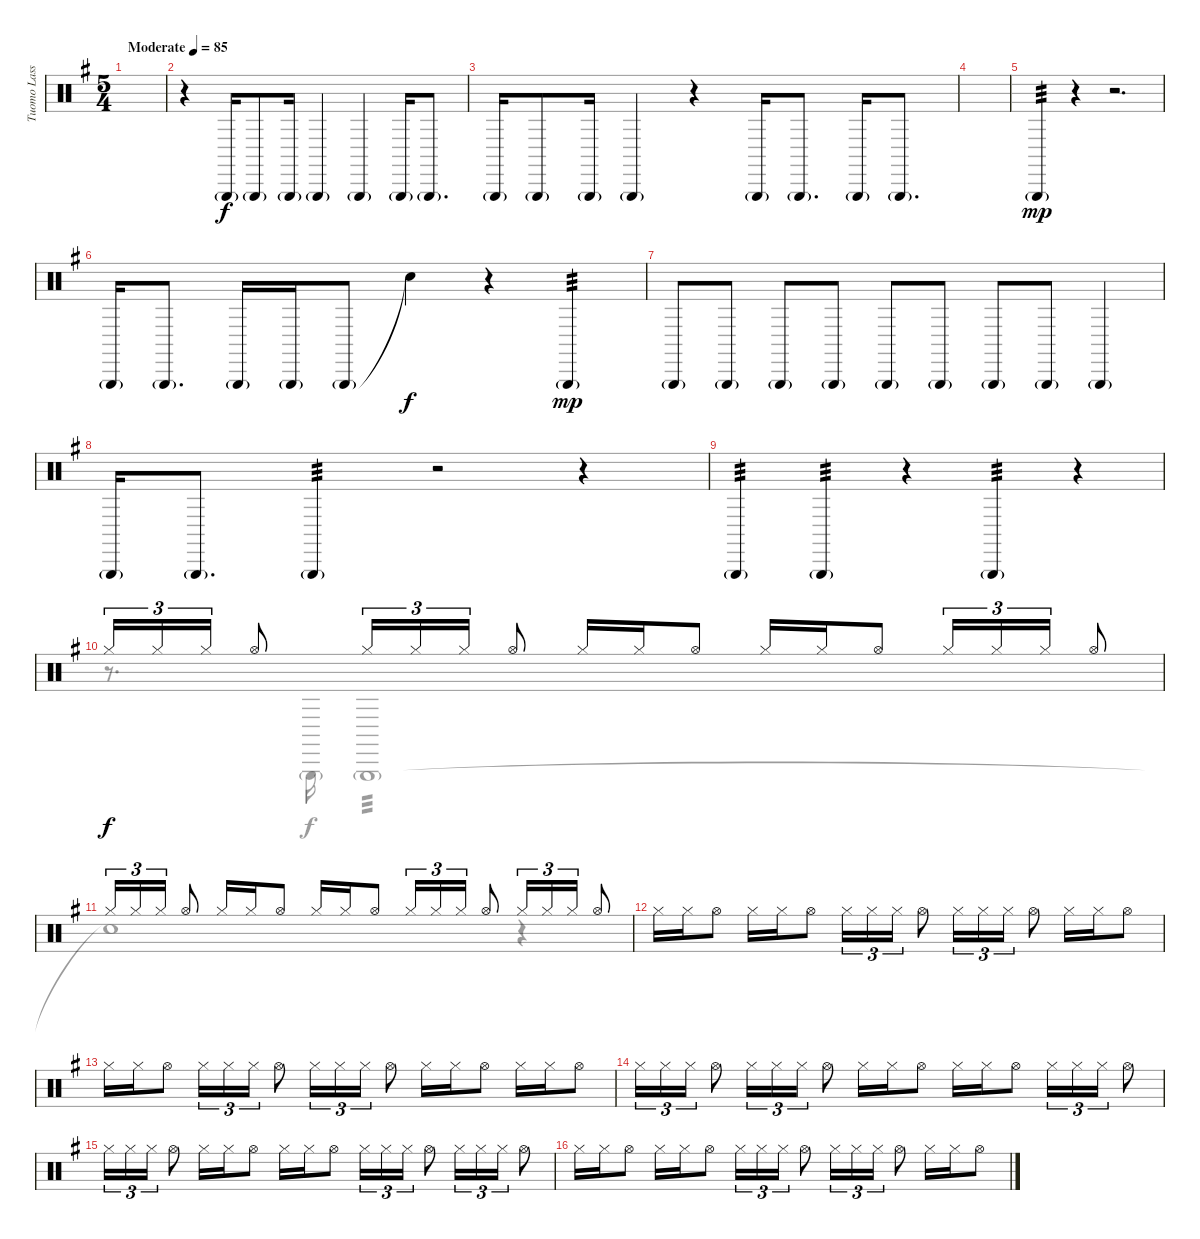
\track ("Tuomo Lassila" "Tuomo Lass") {instrument percussion}
\staff {score}
\articulation defaults
\voice
\ts (5 4)
\tempo (85 "Moderate")
\clef neutral
\ks g
|
r.4 "Triangle (hit)"{g}.16 "Triangle (hit)"{g}.8 "Triangle (hit)"{g}.16 "Triangle (hit)"{g}.4 "Triangle (hit)"{g}.4 "Triangle (hit)"{g}.16 "Triangle (hit)"{g}.8{d} |
"Triangle (hit)"{g}.16 "Triangle (hit)"{g}.8 "Triangle (hit)"{g}.16 "Triangle (hit)"{g}.4 r.4 "Triangle (hit)"{g}.16 "Triangle (hit)"{g}.8{d} "Triangle (hit)"{g}.16 "Triangle (hit)"{g}.8{d} |
|
"Triangle (hit)"{g}.4{tp 3 dy mp} r.4 r.2{d} |
"Triangle (hit)"{g}.16 "Triangle (hit)"{g}.8{d} "Triangle (hit)"{g}.16 "Triangle (hit)"{g}.16 "Triangle (hit)"{g}.8 "Snare (hit)"{t}.4{dy f} r.4 "Triangle (hit)"{g}.4{tp 3 dy mp} |
"Triangle (hit)"{g}.8 "Triangle (hit)"{g}.8 "Triangle (hit)"{g}.8 "Triangle (hit)"{g}.8 "Triangle (hit)"{g}.8 "Triangle (hit)"{g}.8 "Triangle (hit)"{g}.8 "Triangle (hit)"{g}.8 "Triangle (hit)"{g}.4 |
"Triangle (hit)"{g}.16 "Triangle (hit)"{g}.8{d} "Triangle (hit)"{g}.4{tp 3} r.2 r.4 |
"Triangle (hit)"{g}.4{tp 3} "Triangle (hit)"{g}.4{tp 3} r.4 "Triangle (hit)"{g}.4{tp 3} r.4 |
"Hi-Hat (closed)".16{tu (3 2) dy f} "Hi-Hat (closed)".16{tu (3 2)} "Hi-Hat (closed)".16{tu (3 2)} "Hi-Hat (open)".8 "Hi-Hat (closed)".16{tu (3 2)} "Hi-Hat (closed)".16{tu (3 2)} "Hi-Hat (closed)".16{tu (3 2)} "Hi-Hat (open)".8 "Hi-Hat (closed)".16 "Hi-Hat (closed)".16 "Hi-Hat (open)".8 "Hi-Hat (closed)".16 "Hi-Hat (closed)".16 "Hi-Hat (open)".8 "Hi-Hat (closed)".16{tu (3 2)} "Hi-Hat (closed)".16{tu (3 2)} "Hi-Hat (closed)".16{tu (3 2)} "Hi-Hat (open)".8 |
"Hi-Hat (closed)".16{tu (3 2)} "Hi-Hat (closed)".16{tu (3 2)} "Hi-Hat (closed)".16{tu (3 2)} "Hi-Hat (open)".8 "Hi-Hat (closed)".16 "Hi-Hat (closed)".16 "Hi-Hat (open)".8 "Hi-Hat (closed)".16 "Hi-Hat (closed)".16 "Hi-Hat (open)".8 "Hi-Hat (closed)".16{tu (3 2)} "Hi-Hat (closed)".16{tu (3 2)} "Hi-Hat (closed)".16{tu (3 2)} "Hi-Hat (open)".8 "Hi-Hat (closed)".16{tu (3 2)} "Hi-Hat (closed)".16{tu (3 2)} "Hi-Hat (closed)".16{tu (3 2)} "Hi-Hat (open)".8 |
"Hi-Hat (closed)".16 "Hi-Hat (closed)".16 "Hi-Hat (open)".8 "Hi-Hat (closed)".16 "Hi-Hat (closed)".16 "Hi-Hat (open)".8 "Hi-Hat (closed)".16{tu (3 2)} "Hi-Hat (closed)".16{tu (3 2)} "Hi-Hat (closed)".16{tu (3 2)} "Hi-Hat (open)".8 "Hi-Hat (closed)".16{tu (3 2)} "Hi-Hat (closed)".16{tu (3 2)} "Hi-Hat (closed)".16{tu (3 2)} "Hi-Hat (open)".8 "Hi-Hat (closed)".16 "Hi-Hat (closed)".16 "Hi-Hat (open)".8 |
"Hi-Hat (closed)".16 "Hi-Hat (closed)".16 "Hi-Hat (open)".8 "Hi-Hat (closed)".16{tu (3 2)} "Hi-Hat (closed)".16{tu (3 2)} "Hi-Hat (closed)".16{tu (3 2)} "Hi-Hat (open)".8 "Hi-Hat (closed)".16{tu (3 2)} "Hi-Hat (closed)".16{tu (3 2)} "Hi-Hat (closed)".16{tu (3 2)} "Hi-Hat (open)".8 "Hi-Hat (closed)".16 "Hi-Hat (closed)".16 "Hi-Hat (open)".8 "Hi-Hat (closed)".16 "Hi-Hat (closed)".16 "Hi-Hat (open)".8 |
"Hi-Hat (closed)".16{tu (3 2)} "Hi-Hat (closed)".16{tu (3 2)} "Hi-Hat (closed)".16{tu (3 2)} "Hi-Hat (open)".8 "Hi-Hat (closed)".16{tu (3 2)} "Hi-Hat (closed)".16{tu (3 2)} "Hi-Hat (closed)".16{tu (3 2)} "Hi-Hat (open)".8 "Hi-Hat (closed)".16 "Hi-Hat (closed)".16 "Hi-Hat (open)".8 "Hi-Hat (closed)".16 "Hi-Hat (closed)".16 "Hi-Hat (open)".8 "Hi-Hat (closed)".16{tu (3 2)} "Hi-Hat (closed)".16{tu (3 2)} "Hi-Hat (closed)".16{tu (3 2)} "Hi-Hat (open)".8 |
"Hi-Hat (closed)".16{tu (3 2)} "Hi-Hat (closed)".16{tu (3 2)} "Hi-Hat (closed)".16{tu (3 2)} "Hi-Hat (open)".8 "Hi-Hat (closed)".16 "Hi-Hat (closed)".16 "Hi-Hat (open)".8 "Hi-Hat (closed)".16 "Hi-Hat (closed)".16 "Hi-Hat (open)".8 "Hi-Hat (closed)".16{tu (3 2)} "Hi-Hat (closed)".16{tu (3 2)} "Hi-Hat (closed)".16{tu (3 2)} "Hi-Hat (open)".8 "Hi-Hat (closed)".16{tu (3 2)} "Hi-Hat (closed)".16{tu (3 2)} "Hi-Hat (closed)".16{tu (3 2)} "Hi-Hat (open)".8 |
"Hi-Hat (closed)".16 "Hi-Hat (closed)".16 "Hi-Hat (open)".8 "Hi-Hat (closed)".16 "Hi-Hat (closed)".16 "Hi-Hat (open)".8 "Hi-Hat (closed)".16{tu (3 2)} "Hi-Hat (closed)".16{tu (3 2)} "Hi-Hat (closed)".16{tu (3 2)} "Hi-Hat (open)".8 "Hi-Hat (closed)".16{tu (3 2)} "Hi-Hat (closed)".16{tu (3 2)} "Hi-Hat (closed)".16{tu (3 2)} "Hi-Hat (open)".8 "Hi-Hat (closed)".16 "Hi-Hat (closed)".16 "Hi-Hat (open)".8
\voice
\clef neutral
\ottava regular
\simile none
\ks g
|
|
|
|
|
|
|
|
|
r.8{d} "Triangle (hit)"{g}.16 "Triangle (hit)"{g}.1{tp 3} |
"Snare (hit)"{t}.1{dy f} r.4 |
|
|
|
|
